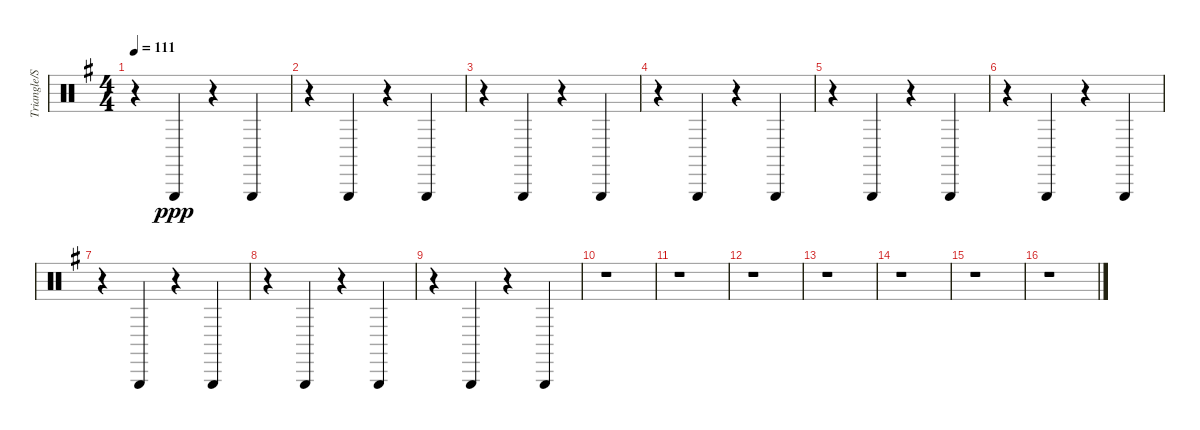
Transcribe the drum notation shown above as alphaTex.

\track ("Triangle/Shaker" "Triangle/S") {instrument percussion}
\staff {score}
\articulation defaults
\ts (4 4)
\tempo 111
\clef neutral
\ks g
r.4{dy ppp} "Triangle (hit)".4 r.4 "Triangle (hit)".4 |
r.4 "Triangle (hit)".4 r.4 "Triangle (hit)".4 |
r.4 "Triangle (hit)".4 r.4 "Triangle (hit)".4 |
r.4 "Triangle (hit)".4 r.4 "Triangle (hit)".4 |
r.4 "Triangle (hit)".4 r.4 "Triangle (hit)".4 |
r.4 "Triangle (hit)".4 r.4 "Triangle (hit)".4 |
r.4 "Triangle (hit)".4 r.4 "Triangle (hit)".4 |
r.4 "Triangle (hit)".4 r.4 "Triangle (hit)".4 |
r.4 "Triangle (hit)".4 r.4 "Triangle (hit)".4 |
r.1 |
r.1 |
r.1 |
r.1 |
r.1 |
r.1 |
r.1
